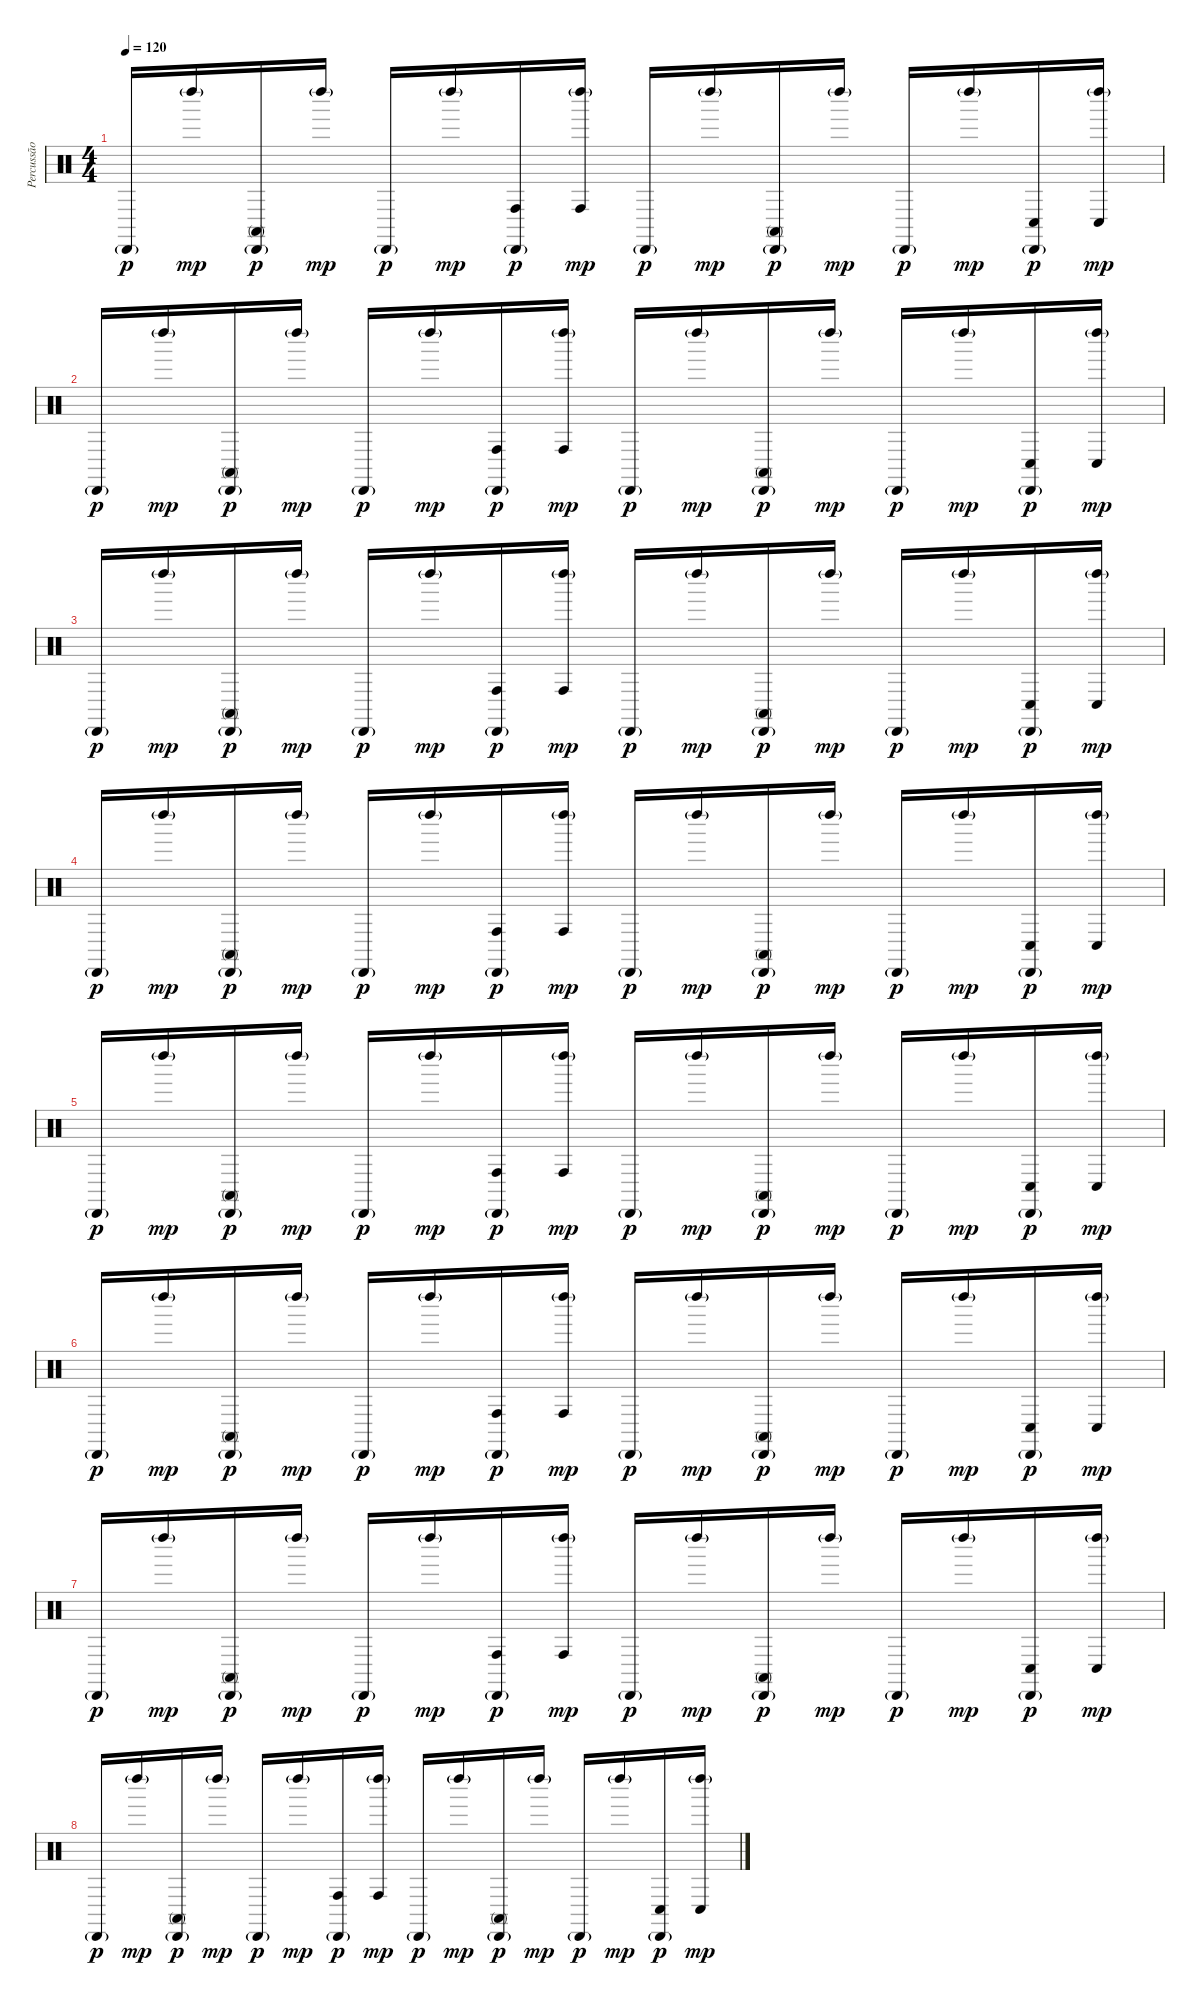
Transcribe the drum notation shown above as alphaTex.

\track ("Percussão Ad." "Percussão ") {instrument percussion}
\staff {score}
\articulation defaults
\ts (4 4)
\tempo 120
\clef neutral
\ks c "Cabasa (hit)"{g}.16{dy p} "Left Maraca (hit)"{g}.16{dy mp}
("Conga high (mute)" "Cabasa (hit)"{g}).16{dy p} "Left Maraca (hit)"{g}.16{dy mp} "Cabasa (hit)"{g}.16{dy p} "Left Maraca (hit)"{g}.16{dy mp} ("Conga high (hit)" "Cabasa (hit)"{g}).16{dy p} ("Conga high (hit)" "Left Maraca (hit)"{g}).16{dy mp} "Cabasa (hit)"{g}.16{dy p} "Left Maraca (hit)"{g}.16{dy mp} ("Conga high (mute)" "Cabasa (hit)"{g}).16{dy p} "Left Maraca (hit)"{g}.16{dy mp} "Cabasa (hit)"{g}.16{dy p} "Left Maraca (hit)"{g}.16{dy mp} ("Conga low (hit)" "Cabasa (hit)"{g}).16{dy p} ("Conga low (hit)" "Left Maraca (hit)"{g}).16{dy mp} |
"Cabasa (hit)"{g}.16{dy p} "Left Maraca (hit)"{g}.16{dy mp} ("Conga high (mute)" "Cabasa (hit)"{g}).16{dy p} "Left Maraca (hit)"{g}.16{dy mp} "Cabasa (hit)"{g}.16{dy p} "Left Maraca (hit)"{g}.16{dy mp} ("Conga high (hit)" "Cabasa (hit)"{g}).16{dy p} ("Conga high (hit)" "Left Maraca (hit)"{g}).16{dy mp} "Cabasa (hit)"{g}.16{dy p} "Left Maraca (hit)"{g}.16{dy mp} ("Conga high (mute)" "Cabasa (hit)"{g}).16{dy p} "Left Maraca (hit)"{g}.16{dy mp} "Cabasa (hit)"{g}.16{dy p} "Left Maraca (hit)"{g}.16{dy mp} ("Conga low (hit)" "Cabasa (hit)"{g}).16{dy p} ("Conga low (hit)" "Left Maraca (hit)"{g}).16{dy mp} |
"Cabasa (hit)"{g}.16{dy p} "Left Maraca (hit)"{g}.16{dy mp} ("Conga high (mute)" "Cabasa (hit)"{g}).16{dy p} "Left Maraca (hit)"{g}.16{dy mp} "Cabasa (hit)"{g}.16{dy p} "Left Maraca (hit)"{g}.16{dy mp} ("Conga high (hit)" "Cabasa (hit)"{g}).16{dy p} ("Conga high (hit)" "Left Maraca (hit)"{g}).16{dy mp} "Cabasa (hit)"{g}.16{dy p} "Left Maraca (hit)"{g}.16{dy mp} ("Conga high (mute)" "Cabasa (hit)"{g}).16{dy p} "Left Maraca (hit)"{g}.16{dy mp} "Cabasa (hit)"{g}.16{dy p} "Left Maraca (hit)"{g}.16{dy mp} ("Conga low (hit)" "Cabasa (hit)"{g}).16{dy p} ("Conga low (hit)" "Left Maraca (hit)"{g}).16{dy mp} |
"Cabasa (hit)"{g}.16{dy p} "Left Maraca (hit)"{g}.16{dy mp} ("Conga high (mute)" "Cabasa (hit)"{g}).16{dy p} "Left Maraca (hit)"{g}.16{dy mp} "Cabasa (hit)"{g}.16{dy p} "Left Maraca (hit)"{g}.16{dy mp} ("Conga high (hit)" "Cabasa (hit)"{g}).16{dy p} ("Conga high (hit)" "Left Maraca (hit)"{g}).16{dy mp} "Cabasa (hit)"{g}.16{dy p} "Left Maraca (hit)"{g}.16{dy mp} ("Conga high (mute)" "Cabasa (hit)"{g}).16{dy p} "Left Maraca (hit)"{g}.16{dy mp} "Cabasa (hit)"{g}.16{dy p} "Left Maraca (hit)"{g}.16{dy mp} ("Conga low (hit)" "Cabasa (hit)"{g}).16{dy p} ("Conga low (hit)" "Left Maraca (hit)"{g}).16{dy mp} |
"Cabasa (hit)"{g}.16{dy p} "Left Maraca (hit)"{g}.16{dy mp} ("Conga high (mute)" "Cabasa (hit)"{g}).16{dy p} "Left Maraca (hit)"{g}.16{dy mp} "Cabasa (hit)"{g}.16{dy p} "Left Maraca (hit)"{g}.16{dy mp} ("Conga high (hit)" "Cabasa (hit)"{g}).16{dy p} ("Conga high (hit)" "Left Maraca (hit)"{g}).16{dy mp} "Cabasa (hit)"{g}.16{dy p} "Left Maraca (hit)"{g}.16{dy mp} ("Conga high (mute)" "Cabasa (hit)"{g}).16{dy p} "Left Maraca (hit)"{g}.16{dy mp} "Cabasa (hit)"{g}.16{dy p} "Left Maraca (hit)"{g}.16{dy mp} ("Conga low (hit)" "Cabasa (hit)"{g}).16{dy p} ("Conga low (hit)" "Left Maraca (hit)"{g}).16{dy mp} |
"Cabasa (hit)"{g}.16{dy p} "Left Maraca (hit)"{g}.16{dy mp} ("Conga high (mute)" "Cabasa (hit)"{g}).16{dy p} "Left Maraca (hit)"{g}.16{dy mp} "Cabasa (hit)"{g}.16{dy p} "Left Maraca (hit)"{g}.16{dy mp} ("Conga high (hit)" "Cabasa (hit)"{g}).16{dy p} ("Conga high (hit)" "Left Maraca (hit)"{g}).16{dy mp} "Cabasa (hit)"{g}.16{dy p} "Left Maraca (hit)"{g}.16{dy mp} ("Conga high (mute)" "Cabasa (hit)"{g}).16{dy p} "Left Maraca (hit)"{g}.16{dy mp} "Cabasa (hit)"{g}.16{dy p} "Left Maraca (hit)"{g}.16{dy mp} ("Conga low (hit)" "Cabasa (hit)"{g}).16{dy p} ("Conga low (hit)" "Left Maraca (hit)"{g}).16{dy mp} |
"Cabasa (hit)"{g}.16{dy p} "Left Maraca (hit)"{g}.16{dy mp} ("Conga high (mute)" "Cabasa (hit)"{g}).16{dy p} "Left Maraca (hit)"{g}.16{dy mp} "Cabasa (hit)"{g}.16{dy p} "Left Maraca (hit)"{g}.16{dy mp} ("Conga high (hit)" "Cabasa (hit)"{g}).16{dy p} ("Conga high (hit)" "Left Maraca (hit)"{g}).16{dy mp} "Cabasa (hit)"{g}.16{dy p} "Left Maraca (hit)"{g}.16{dy mp} ("Conga high (mute)" "Cabasa (hit)"{g}).16{dy p} "Left Maraca (hit)"{g}.16{dy mp} "Cabasa (hit)"{g}.16{dy p} "Left Maraca (hit)"{g}.16{dy mp} ("Conga low (hit)" "Cabasa (hit)"{g}).16{dy p} ("Conga low (hit)" "Left Maraca (hit)"{g}).16{dy mp} |
"Cabasa (hit)"{g}.16{dy p} "Left Maraca (hit)"{g}.16{dy mp} ("Conga high (mute)" "Cabasa (hit)"{g}).16{dy p} "Left Maraca (hit)"{g}.16{dy mp} "Cabasa (hit)"{g}.16{dy p} "Left Maraca (hit)"{g}.16{dy mp} ("Conga high (hit)" "Cabasa (hit)"{g}).16{dy p} ("Conga high (hit)" "Left Maraca (hit)"{g}).16{dy mp} "Cabasa (hit)"{g}.16{dy p} "Left Maraca (hit)"{g}.16{dy mp} ("Conga high (mute)" "Cabasa (hit)"{g}).16{dy p} "Left Maraca (hit)"{g}.16{dy mp} "Cabasa (hit)"{g}.16{dy p} "Left Maraca (hit)"{g}.16{dy mp} ("Conga low (hit)" "Cabasa (hit)"{g}).16{dy p} ("Conga low (hit)" "Left Maraca (hit)"{g}).16{dy mp}
